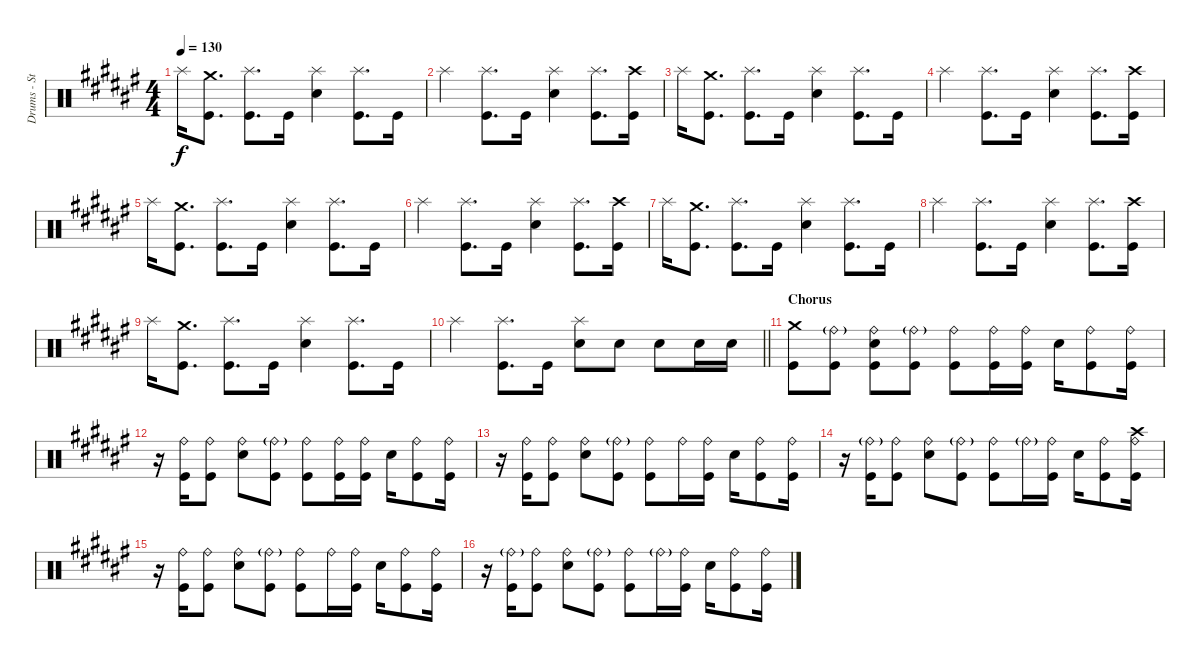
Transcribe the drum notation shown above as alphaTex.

\track ("Drums - Stef Broks" "Drums - St") {instrument percussion}
\staff {score}
\articulation defaults
\ts (4 4)
\tempo 130
\clef neutral
\ks d#minor "Splash (hit)".16{dy f}
("Kick (hit)" "Crash medium (hit)").8{d} ("Kick (hit)" "Splash (hit)").8{d} "Kick (hit)".16 ("Splash (hit)" "Snare (hit) 2").4 ("Splash (hit)" "Kick (hit)").8{d} "Kick (hit)".16 |
"Splash (hit)".4 ("Splash (hit)" "Kick (hit)").8{d} "Kick (hit)".16 ("Splash (hit)" "Snare (hit) 2").4 ("Kick (hit)" "Splash (hit)").8{d} ("Kick (hit)" "Crash high (hit)").16 |
"Splash (hit)".16 ("Kick (hit)" "Crash medium (hit)").8{d} ("Kick (hit)" "Splash (hit)").8{d} "Kick (hit)".16 ("Splash (hit)" "Snare (hit) 2").4 ("Splash (hit)" "Kick (hit)").8{d} "Kick (hit)".16 |
"Splash (hit)".4 ("Splash (hit)" "Kick (hit)").8{d} "Kick (hit)".16 ("Splash (hit)" "Snare (hit) 2").4 ("Kick (hit)" "Splash (hit)").8{d} ("Kick (hit)" "Crash high (hit)").16 |
"Splash (hit)".16 ("Kick (hit)" "Crash medium (hit)").8{d} ("Kick (hit)" "Splash (hit)").8{d} "Kick (hit)".16 ("Splash (hit)" "Snare (hit) 2").4 ("Splash (hit)" "Kick (hit)").8{d} "Kick (hit)".16 |
"Splash (hit)".4 ("Splash (hit)" "Kick (hit)").8{d} "Kick (hit)".16 ("Splash (hit)" "Snare (hit) 2").4 ("Kick (hit)" "Splash (hit)").8{d} ("Kick (hit)" "Crash high (hit)").16 |
"Splash (hit)".16 ("Kick (hit)" "Crash medium (hit)").8{d} ("Kick (hit)" "Splash (hit)").8{d} "Kick (hit)".16 ("Splash (hit)" "Snare (hit) 2").4 ("Splash (hit)" "Kick (hit)").8{d} "Kick (hit)".16 |
"Splash (hit)".4 ("Splash (hit)" "Kick (hit)").8{d} "Kick (hit)".16 ("Splash (hit)" "Snare (hit) 2").4 ("Kick (hit)" "Splash (hit)").8{d} ("Kick (hit)" "Crash high (hit)").16 |
"Splash (hit)".16 ("Kick (hit)" "Crash medium (hit)").8{d} ("Kick (hit)" "Splash (hit)").8{d} "Kick (hit)".16 ("Splash (hit)" "Snare (hit) 2").4 ("Splash (hit)" "Kick (hit)").8{d} "Kick (hit)".16 |
\barLineRight lightlight "Splash (hit)".4
("Kick (hit)" "Splash (hit)").8{d} "Kick (hit)".16 ("Splash (hit)" "Snare (hit) 2").8 "Snare (hit) 2".8 "Snare (hit) 2".8 "Snare (hit) 2".16 "Snare (hit) 2".16 |
\section ("" "Chorus")
("Kick (hit)" "Crash medium (hit)").8 ("Kick (hit)" "Ride (bell)"{g}).8 ("Snare (hit) 2" "Ride (bell)" "Kick (hit)").8 ("Kick (hit)" "Ride (bell)"{g}).8 ("Kick (hit)" "Ride (bell)").8 ("Ride (bell)" "Kick (hit)").16 ("Kick (hit)" "Ride (bell)").16 "Snare (hit) 2".16 ("Kick (hit)" "Ride (bell)").8 ("Ride (bell)" "Kick (hit)").16 |
r.16 ("Kick (hit)" "Ride (bell)").16 ("Kick (hit)" "Ride (bell)").8 ("Ride (bell)" "Snare (hit) 2").8 ("Ride (bell)"{g} "Kick (hit)").8 ("Ride (bell)" "Kick (hit)").8 ("Ride (bell)" "Kick (hit)").16 ("Ride (bell)" "Kick (hit)").16 "Snare (hit) 2".16 ("Kick (hit)" "Ride (bell)").8 ("Kick (hit)" "Ride (bell)").16 |
r.16 ("Kick (hit)" "Ride (bell)").16 ("Kick (hit)" "Ride (bell)").8 ("Ride (bell)" "Snare (hit) 2").8 ("Ride (bell)"{g} "Kick (hit)").8 ("Ride (bell)" "Kick (hit)").8 "Ride (bell)".16 ("Ride (bell)" "Kick (hit)").16 "Snare (hit) 2".16 ("Kick (hit)" "Ride (bell)").8 ("Kick (hit)" "Ride (bell)").16 |
r.16 ("Kick (hit)" "Ride (bell)"{g}).16 ("Kick (hit)" "Ride (bell)").8 ("Ride (bell)" "Snare (hit) 2").8 ("Ride (bell)"{g} "Kick (hit)").8 ("Ride (bell)" "Kick (hit)").8 "Ride (bell)"{g}.16 ("Ride (bell)" "Kick (hit)").16 "Snare (hit) 2".16 ("Kick (hit)" "Ride (bell)").8 ("Kick (hit)" "Ride (bell)" "Crash high (hit)").16 |
r.16 ("Kick (hit)" "Ride (bell)").16 ("Kick (hit)" "Ride (bell)").8 ("Ride (bell)" "Snare (hit) 2").8 ("Ride (bell)"{g} "Kick (hit)").8 ("Ride (bell)" "Kick (hit)").8 "Ride (bell)".16 ("Ride (bell)" "Kick (hit)").16 "Snare (hit) 2".16 ("Kick (hit)" "Ride (bell)").8 ("Kick (hit)" "Ride (bell)").16 |
r.16 ("Kick (hit)" "Ride (bell)"{g}).16 ("Kick (hit)" "Ride (bell)").8 ("Ride (bell)" "Snare (hit) 2").8 ("Ride (bell)"{g} "Kick (hit)").8 ("Ride (bell)" "Kick (hit)").8 "Ride (bell)"{g}.16 ("Ride (bell)" "Kick (hit)").16 "Snare (hit) 2".16 ("Kick (hit)" "Ride (bell)").8 ("Kick (hit)" "Ride (bell)").16
